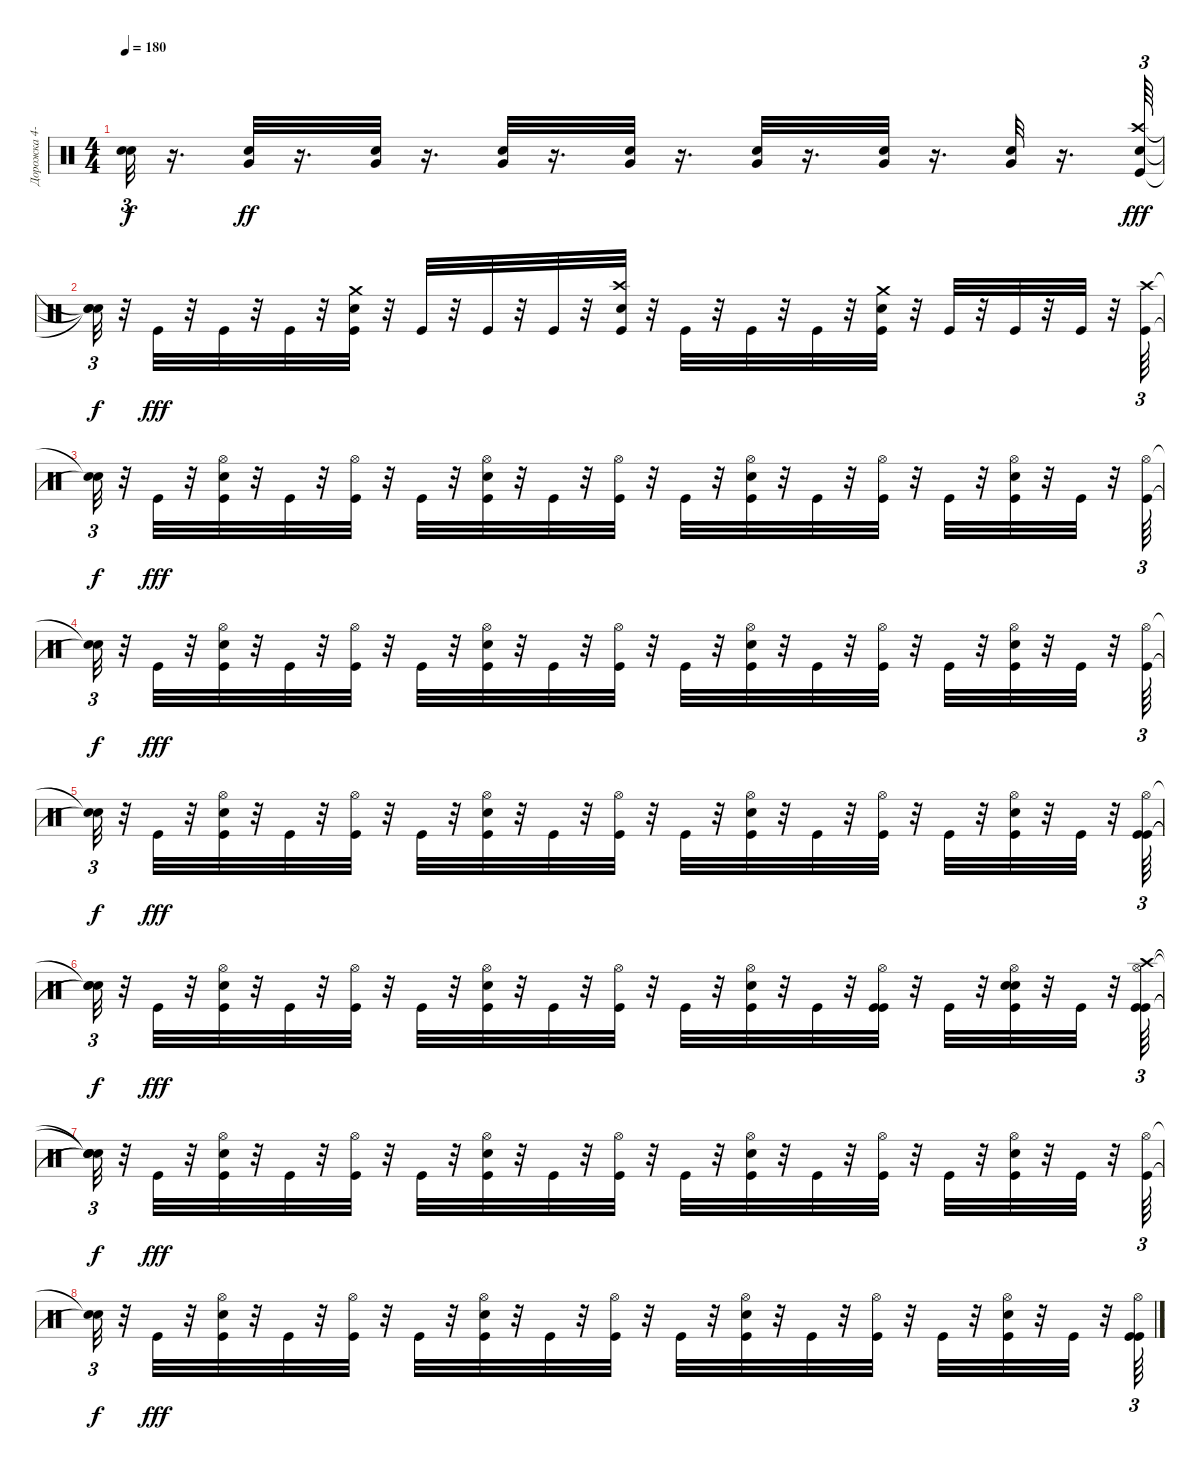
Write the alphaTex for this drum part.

\track ("Дорожка 4-10-11" "Дорожка 4-") {instrument percussion}
\staff {score}
\articulation defaults
\ts (4 4)
\tempo 180
\clef neutral
\ks c
("Snare (hit)"{t} "Snare (hit)"{t}).32{tu (3 2) dy f} r.16{d} ("Electric Snare (hit)" "Very Low Tom (hit)").32{dy ff} r.16{d} ("Electric Snare (hit)" "Very Low Tom (hit)").32 r.16{d} ("Electric Snare (hit)" "Very Low Tom (hit)").32 r.16{d} ("Electric Snare (hit)" "Very Low Tom (hit)").32 r.16{d} ("Electric Snare (hit)" "Very Low Tom (hit)").32 r.16{d} ("Electric Snare (hit)" "Very Low Tom (hit)").32 r.16{d} ("Electric Snare (hit)" "Very Low Tom (hit)").32 r.16{d} ("Electric Snare (hit)" "Crash high (hit)" "Kick (hit)").64{tu (3 2) dy fff} |
("Snare (hit)"{t} "Snare (hit)"{t} "Snare (hit)"{t}).32{tu (3 2) dy f} r.32 "Kick (hit)".32{dy fff} r.32 "Kick (hit)".32 r.32 "Kick (hit)".32 r.32 ("Electric Snare (hit)" "Crash medium (hit)" "Kick (hit)").32 r.32 "Kick (hit)".32 r.32 "Kick (hit)".32 r.32 "Kick (hit)".32 r.32 ("Electric Snare (hit)" "Crash high (hit)" "Kick (hit)").32 r.32 "Kick (hit)".32 r.32 "Kick (hit)".32 r.32 "Kick (hit)".32 r.32 ("Electric Snare (hit)" "Crash medium (hit)" "Kick (hit)").32 r.32 "Kick (hit)".32 r.32 "Kick (hit)".32 r.32 "Kick (hit)".32 r.32 ("Crash high (hit)" "Kick (hit)").64{tu (3 2)} |
("Snare (hit)"{t} "Snare (hit)"{t}).32{tu (3 2) dy f} r.32 "Kick (hit)".32{dy fff} r.32 ("Hi-Hat (open)" "Snare (hit) 2" "Kick (hit)").32 r.32 "Kick (hit)".32 r.32 ("Hi-Hat (open)" "Kick (hit)").32 r.32 "Kick (hit)".32 r.32 ("Snare (hit) 2" "Hi-Hat (open)" "Kick (hit)").32 r.32 "Kick (hit)".32 r.32 ("Hi-Hat (open)" "Kick (hit)").32 r.32 "Kick (hit)".32 r.32 ("Hi-Hat (open)" "Snare (hit) 2" "Kick (hit)").32 r.32 "Kick (hit)".32 r.32 ("Hi-Hat (open)" "Kick (hit)").32 r.32 "Kick (hit)".32 r.32 ("Hi-Hat (open)" "Snare (hit) 2" "Kick (hit)").32 r.32 "Kick (hit)".32 r.32 ("Hi-Hat (open)" "Kick (hit)").64{tu (3 2)} |
("Snare (hit)"{t} "Snare (hit)"{t}).32{tu (3 2) dy f} r.32 "Kick (hit)".32{dy fff} r.32 ("Hi-Hat (open)" "Snare (hit) 2" "Kick (hit)").32 r.32 "Kick (hit)".32 r.32 ("Hi-Hat (open)" "Kick (hit)").32 r.32 "Kick (hit)".32 r.32 ("Snare (hit) 2" "Hi-Hat (open)" "Kick (hit)").32 r.32 "Kick (hit)".32 r.32 ("Hi-Hat (open)" "Kick (hit)").32 r.32 "Kick (hit)".32 r.32 ("Hi-Hat (open)" "Snare (hit) 2" "Kick (hit)").32 r.32 "Kick (hit)".32 r.32 ("Hi-Hat (open)" "Kick (hit)").32 r.32 "Kick (hit)".32 r.32 ("Hi-Hat (open)" "Snare (hit) 2" "Kick (hit)").32 r.32 "Kick (hit)".32 r.32 ("Hi-Hat (open)" "Kick (hit)").64{tu (3 2)} |
("Snare (hit)"{t} "Snare (hit)"{t}).32{tu (3 2) dy f} r.32 "Kick (hit)".32{dy fff} r.32 ("Hi-Hat (open)" "Snare (hit) 2" "Kick (hit)").32 r.32 "Kick (hit)".32 r.32 ("Hi-Hat (open)" "Kick (hit)").32 r.32 "Kick (hit)".32 r.32 ("Snare (hit) 2" "Hi-Hat (open)" "Kick (hit)").32 r.32 "Kick (hit)".32 r.32 ("Hi-Hat (open)" "Kick (hit)").32 r.32 "Kick (hit)".32 r.32 ("Hi-Hat (open)" "Snare (hit) 2" "Kick (hit)").32 r.32 "Kick (hit)".32 r.32 ("Hi-Hat (open)" "Kick (hit)").32 r.32 "Kick (hit)".32 r.32 ("Hi-Hat (open)" "Snare (hit) 2" "Kick (hit)").32 r.32 "Kick (hit)".32 r.32 ("Hi-Hat (open)" "Kick (hit)" "Kick (hit)").64{tu (3 2)} |
("Snare (hit)"{t} "Snare (hit)"{t} "Snare (hit)"{t}).32{tu (3 2) dy f} r.32 "Kick (hit)".32{dy fff} r.32 ("Hi-Hat (open)" "Snare (hit) 2" "Kick (hit)").32 r.32 "Kick (hit)".32 r.32 ("Hi-Hat (open)" "Kick (hit)").32 r.32 "Kick (hit)".32 r.32 ("Snare (hit) 2" "Hi-Hat (open)" "Kick (hit)").32 r.32 "Kick (hit)".32 r.32 ("Hi-Hat (open)" "Kick (hit)").32 r.32 "Kick (hit)".32 r.32 ("Hi-Hat (open)" "Snare (hit) 2" "Kick (hit)").32 r.32 "Kick (hit)".32 r.32 ("Hi-Hat (open)" "Kick (hit)" "Kick (hit)").32 r.32 "Kick (hit)".32 r.32 ("Snare (hit) 2" "Hi-Hat (open)" "Snare (hit) 2" "Kick (hit)").32 r.32 "Kick (hit)".32 r.32 ("Crash high (hit)" "Hi-Hat (open)" "Kick (hit)" "Kick (hit)").64{tu (3 2)} |
("Snare (hit)"{t} "Snare (hit)"{t} "Snare (hit)"{t} "Snare (hit)"{t}).32{tu (3 2) dy f} r.32 "Kick (hit)".32{dy fff} r.32 ("Hi-Hat (open)" "Snare (hit) 2" "Kick (hit)").32 r.32 "Kick (hit)".32 r.32 ("Hi-Hat (open)" "Kick (hit)").32 r.32 "Kick (hit)".32 r.32 ("Snare (hit) 2" "Hi-Hat (open)" "Kick (hit)").32 r.32 "Kick (hit)".32 r.32 ("Hi-Hat (open)" "Kick (hit)").32 r.32 "Kick (hit)".32 r.32 ("Hi-Hat (open)" "Snare (hit) 2" "Kick (hit)").32 r.32 "Kick (hit)".32 r.32 ("Hi-Hat (open)" "Kick (hit)").32 r.32 "Kick (hit)".32 r.32 ("Hi-Hat (open)" "Snare (hit) 2" "Kick (hit)").32 r.32 "Kick (hit)".32 r.32 ("Hi-Hat (open)" "Kick (hit)").64{tu (3 2)} |
("Snare (hit)"{t} "Snare (hit)"{t}).32{tu (3 2) dy f} r.32 "Kick (hit)".32{dy fff} r.32 ("Hi-Hat (open)" "Snare (hit) 2" "Kick (hit)").32 r.32 "Kick (hit)".32 r.32 ("Hi-Hat (open)" "Kick (hit)").32 r.32 "Kick (hit)".32 r.32 ("Snare (hit) 2" "Hi-Hat (open)" "Kick (hit)").32 r.32 "Kick (hit)".32 r.32 ("Hi-Hat (open)" "Kick (hit)").32 r.32 "Kick (hit)".32 r.32 ("Hi-Hat (open)" "Snare (hit) 2" "Kick (hit)").32 r.32 "Kick (hit)".32 r.32 ("Hi-Hat (open)" "Kick (hit)").32 r.32 "Kick (hit)".32 r.32 ("Hi-Hat (open)" "Snare (hit) 2" "Kick (hit)").32 r.32 "Kick (hit)".32 r.32 ("Hi-Hat (open)" "Kick (hit)" "Kick (hit)").64{tu (3 2)}
